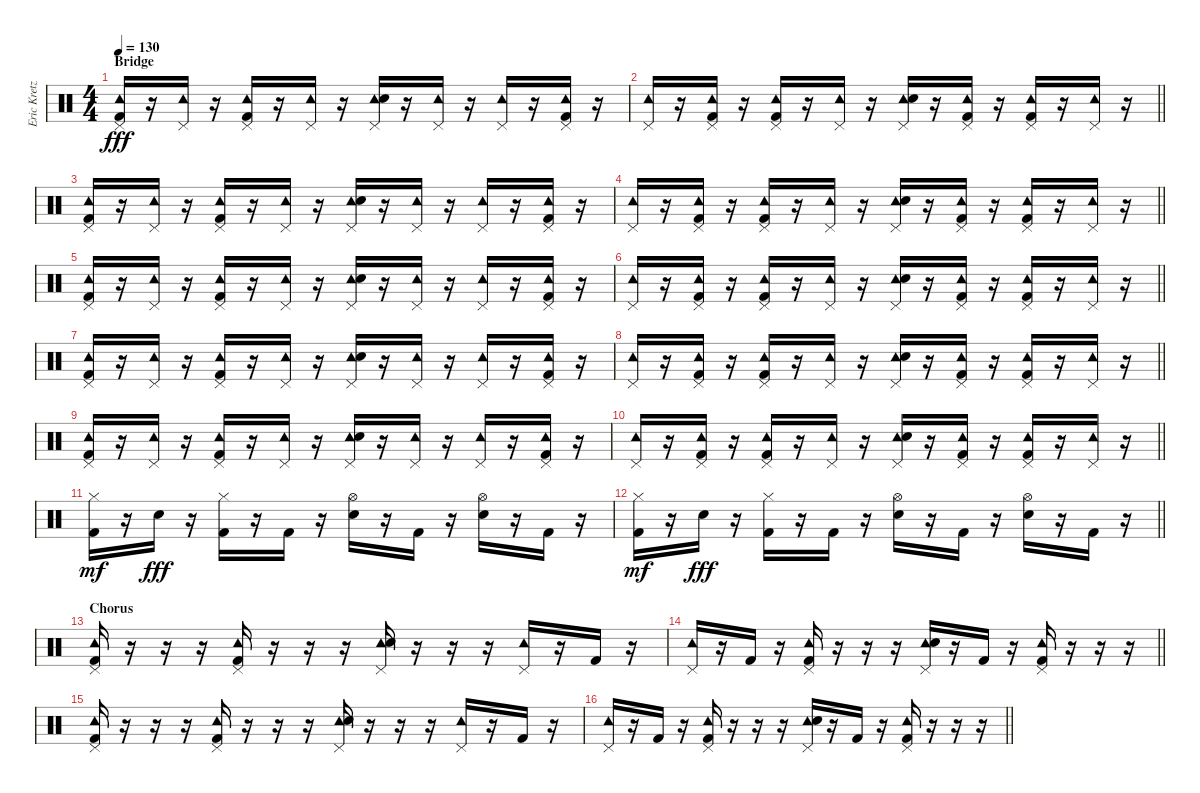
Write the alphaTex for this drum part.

\track ("Eric Kretz (Drums)" "Eric Kretz") {instrument percussion}
\staff {score}
\articulation defaults
\ts (4 4)
\section ("" "Bridge ")
\tempo 130
\clef neutral
\ks c
("Pedal Hi-Hat (hit)" "Tambourine (hit)" "Kick (hit) 2").16{dy fff} r.16 ("Pedal Hi-Hat (hit)" "Tambourine (hit)").16 r.16 ("Pedal Hi-Hat (hit)" "Tambourine (hit)" "Kick (hit) 2").16 r.16 ("Pedal Hi-Hat (hit)" "Tambourine (hit)").16 r.16 ("Pedal Hi-Hat (hit)" "Tambourine (hit)" "Electric Snare (hit)").16 r.16 ("Pedal Hi-Hat (hit)" "Tambourine (hit)").16 r.16 ("Pedal Hi-Hat (hit)" "Tambourine (hit)").16 r.16 ("Pedal Hi-Hat (hit)" "Tambourine (hit)" "Kick (hit) 2").16 r.16 |
\barLineRight lightlight
("Pedal Hi-Hat (hit)" "Tambourine (hit)").16 r.16 ("Pedal Hi-Hat (hit)" "Tambourine (hit)" "Kick (hit) 2").16 r.16 ("Pedal Hi-Hat (hit)" "Tambourine (hit)" "Kick (hit) 2").16 r.16 ("Pedal Hi-Hat (hit)" "Tambourine (hit)").16 r.16 ("Pedal Hi-Hat (hit)" "Tambourine (hit)" "Electric Snare (hit)").16 r.16 ("Pedal Hi-Hat (hit)" "Tambourine (hit)" "Kick (hit) 2").16 r.16 ("Pedal Hi-Hat (hit)" "Tambourine (hit)" "Kick (hit) 2").16 r.16 ("Pedal Hi-Hat (hit)" "Tambourine (hit)").16 r.16 |
("Pedal Hi-Hat (hit)" "Tambourine (hit)" "Kick (hit) 2").16 r.16 ("Pedal Hi-Hat (hit)" "Tambourine (hit)").16 r.16 ("Pedal Hi-Hat (hit)" "Tambourine (hit)" "Kick (hit) 2").16 r.16 ("Pedal Hi-Hat (hit)" "Tambourine (hit)").16 r.16 ("Pedal Hi-Hat (hit)" "Tambourine (hit)" "Electric Snare (hit)").16 r.16 ("Pedal Hi-Hat (hit)" "Tambourine (hit)").16 r.16 ("Pedal Hi-Hat (hit)" "Tambourine (hit)").16 r.16 ("Pedal Hi-Hat (hit)" "Tambourine (hit)" "Kick (hit) 2").16 r.16 |
\barLineRight lightlight
("Pedal Hi-Hat (hit)" "Tambourine (hit)").16 r.16 ("Pedal Hi-Hat (hit)" "Tambourine (hit)" "Kick (hit) 2").16 r.16 ("Pedal Hi-Hat (hit)" "Tambourine (hit)" "Kick (hit) 2").16 r.16 ("Pedal Hi-Hat (hit)" "Tambourine (hit)").16 r.16 ("Pedal Hi-Hat (hit)" "Tambourine (hit)" "Electric Snare (hit)").16 r.16 ("Pedal Hi-Hat (hit)" "Tambourine (hit)" "Kick (hit) 2").16 r.16 ("Pedal Hi-Hat (hit)" "Tambourine (hit)" "Kick (hit) 2").16 r.16 ("Pedal Hi-Hat (hit)" "Tambourine (hit)").16 r.16 |
("Pedal Hi-Hat (hit)" "Tambourine (hit)" "Kick (hit) 2").16 r.16 ("Pedal Hi-Hat (hit)" "Tambourine (hit)").16 r.16 ("Pedal Hi-Hat (hit)" "Tambourine (hit)" "Kick (hit) 2").16 r.16 ("Pedal Hi-Hat (hit)" "Tambourine (hit)").16 r.16 ("Pedal Hi-Hat (hit)" "Tambourine (hit)" "Electric Snare (hit)").16 r.16 ("Pedal Hi-Hat (hit)" "Tambourine (hit)").16 r.16 ("Pedal Hi-Hat (hit)" "Tambourine (hit)").16 r.16 ("Pedal Hi-Hat (hit)" "Tambourine (hit)" "Kick (hit) 2").16 r.16 |
\barLineRight lightlight
("Pedal Hi-Hat (hit)" "Tambourine (hit)").16 r.16 ("Pedal Hi-Hat (hit)" "Tambourine (hit)" "Kick (hit) 2").16 r.16 ("Pedal Hi-Hat (hit)" "Tambourine (hit)" "Kick (hit) 2").16 r.16 ("Pedal Hi-Hat (hit)" "Tambourine (hit)").16 r.16 ("Pedal Hi-Hat (hit)" "Tambourine (hit)" "Electric Snare (hit)").16 r.16 ("Pedal Hi-Hat (hit)" "Tambourine (hit)" "Kick (hit) 2").16 r.16 ("Pedal Hi-Hat (hit)" "Tambourine (hit)" "Kick (hit) 2").16 r.16 ("Pedal Hi-Hat (hit)" "Tambourine (hit)").16 r.16 |
("Pedal Hi-Hat (hit)" "Tambourine (hit)" "Kick (hit) 2").16 r.16 ("Pedal Hi-Hat (hit)" "Tambourine (hit)").16 r.16 ("Pedal Hi-Hat (hit)" "Tambourine (hit)" "Kick (hit) 2").16 r.16 ("Pedal Hi-Hat (hit)" "Tambourine (hit)").16 r.16 ("Pedal Hi-Hat (hit)" "Tambourine (hit)" "Electric Snare (hit)").16 r.16 ("Pedal Hi-Hat (hit)" "Tambourine (hit)").16 r.16 ("Pedal Hi-Hat (hit)" "Tambourine (hit)").16 r.16 ("Pedal Hi-Hat (hit)" "Tambourine (hit)" "Kick (hit) 2").16 r.16 |
\barLineRight lightlight
("Pedal Hi-Hat (hit)" "Tambourine (hit)").16 r.16 ("Pedal Hi-Hat (hit)" "Tambourine (hit)" "Kick (hit) 2").16 r.16 ("Pedal Hi-Hat (hit)" "Tambourine (hit)" "Kick (hit) 2").16 r.16 ("Pedal Hi-Hat (hit)" "Tambourine (hit)").16 r.16 ("Pedal Hi-Hat (hit)" "Tambourine (hit)" "Electric Snare (hit)").16 r.16 ("Pedal Hi-Hat (hit)" "Tambourine (hit)" "Kick (hit) 2").16 r.16 ("Pedal Hi-Hat (hit)" "Tambourine (hit)" "Kick (hit) 2").16 r.16 ("Pedal Hi-Hat (hit)" "Tambourine (hit)").16 r.16 |
\section ("" "")
("Pedal Hi-Hat (hit)" "Tambourine (hit)" "Kick (hit) 2").16 r.16 ("Pedal Hi-Hat (hit)" "Tambourine (hit)").16 r.16 ("Pedal Hi-Hat (hit)" "Tambourine (hit)" "Kick (hit) 2").16 r.16 ("Pedal Hi-Hat (hit)" "Tambourine (hit)").16 r.16 ("Pedal Hi-Hat (hit)" "Tambourine (hit)" "Electric Snare (hit)").16 r.16 ("Pedal Hi-Hat (hit)" "Tambourine (hit)").16 r.16 ("Pedal Hi-Hat (hit)" "Tambourine (hit)").16 r.16 ("Pedal Hi-Hat (hit)" "Tambourine (hit)" "Kick (hit) 2").16 r.16 |
\barLineRight lightlight
("Pedal Hi-Hat (hit)" "Tambourine (hit)").16 r.16 ("Pedal Hi-Hat (hit)" "Tambourine (hit)" "Kick (hit) 2").16 r.16 ("Pedal Hi-Hat (hit)" "Tambourine (hit)" "Kick (hit) 2").16 r.16 ("Pedal Hi-Hat (hit)" "Tambourine (hit)").16 r.16 ("Pedal Hi-Hat (hit)" "Tambourine (hit)" "Electric Snare (hit)").16 r.16 ("Pedal Hi-Hat (hit)" "Tambourine (hit)" "Kick (hit) 2").16 r.16 ("Pedal Hi-Hat (hit)" "Tambourine (hit)" "Kick (hit) 2").16 r.16 ("Pedal Hi-Hat (hit)" "Tambourine (hit)").16 r.16 |
("Hi-Hat (closed)" "Kick (hit) 2").16{dy mf} r.16 "Electric Snare (hit)".16{dy fff} r.16 ("Hi-Hat (closed)" "Kick (hit) 2").16 r.16 "Kick (hit) 2".16 r.16 ("Hi-Hat (open)" "Electric Snare (hit)").16 r.16 "Kick (hit) 2".16 r.16 ("Hi-Hat (open)" "Electric Snare (hit)").16 r.16 "Kick (hit) 2".16 r.16 |
\barLineRight lightlight
("Hi-Hat (closed)" "Kick (hit) 2").16{dy mf} r.16 "Electric Snare (hit)".16{dy fff} r.16 ("Hi-Hat (closed)" "Kick (hit) 2").16 r.16 "Kick (hit) 2".16 r.16 ("Hi-Hat (open)" "Electric Snare (hit)").16 r.16 "Kick (hit) 2".16 r.16 ("Hi-Hat (open)" "Electric Snare (hit)").16 r.16 "Kick (hit) 2".16 r.16 |
\section ("" "Chorus")
("Pedal Hi-Hat (hit)" "Tambourine (hit)" "Kick (hit) 2").16 r.16 r.16 r.16 ("Pedal Hi-Hat (hit)" "Tambourine (hit)" "Kick (hit) 2").16 r.16 r.16 r.16 ("Pedal Hi-Hat (hit)" "Tambourine (hit)" "Electric Snare (hit)").16 r.16 r.16 r.16 ("Pedal Hi-Hat (hit)" "Tambourine (hit)").16 r.16 "Kick (hit) 2".16 r.16 |
\barLineRight lightlight
("Pedal Hi-Hat (hit)" "Tambourine (hit)").16 r.16 "Kick (hit) 2".16 r.16 ("Pedal Hi-Hat (hit)" "Tambourine (hit)" "Kick (hit) 2").16 r.16 r.16 r.16 ("Pedal Hi-Hat (hit)" "Tambourine (hit)" "Electric Snare (hit)").16 r.16 "Kick (hit) 2".16 r.16 ("Pedal Hi-Hat (hit)" "Tambourine (hit)" "Kick (hit) 2").16 r.16 r.16 r.16 |
("Pedal Hi-Hat (hit)" "Tambourine (hit)" "Kick (hit) 2").16 r.16 r.16 r.16 ("Pedal Hi-Hat (hit)" "Tambourine (hit)" "Kick (hit) 2").16 r.16 r.16 r.16 ("Pedal Hi-Hat (hit)" "Tambourine (hit)" "Electric Snare (hit)").16 r.16 r.16 r.16 ("Pedal Hi-Hat (hit)" "Tambourine (hit)").16 r.16 "Kick (hit) 2".16 r.16 |
\barLineRight lightlight
("Pedal Hi-Hat (hit)" "Tambourine (hit)").16 r.16 "Kick (hit) 2".16 r.16 ("Pedal Hi-Hat (hit)" "Tambourine (hit)" "Kick (hit) 2").16 r.16 r.16 r.16 ("Pedal Hi-Hat (hit)" "Tambourine (hit)" "Electric Snare (hit)").16 r.16 "Kick (hit) 2".16 r.16 ("Pedal Hi-Hat (hit)" "Tambourine (hit)" "Kick (hit) 2").16 r.16 r.16 r.16
